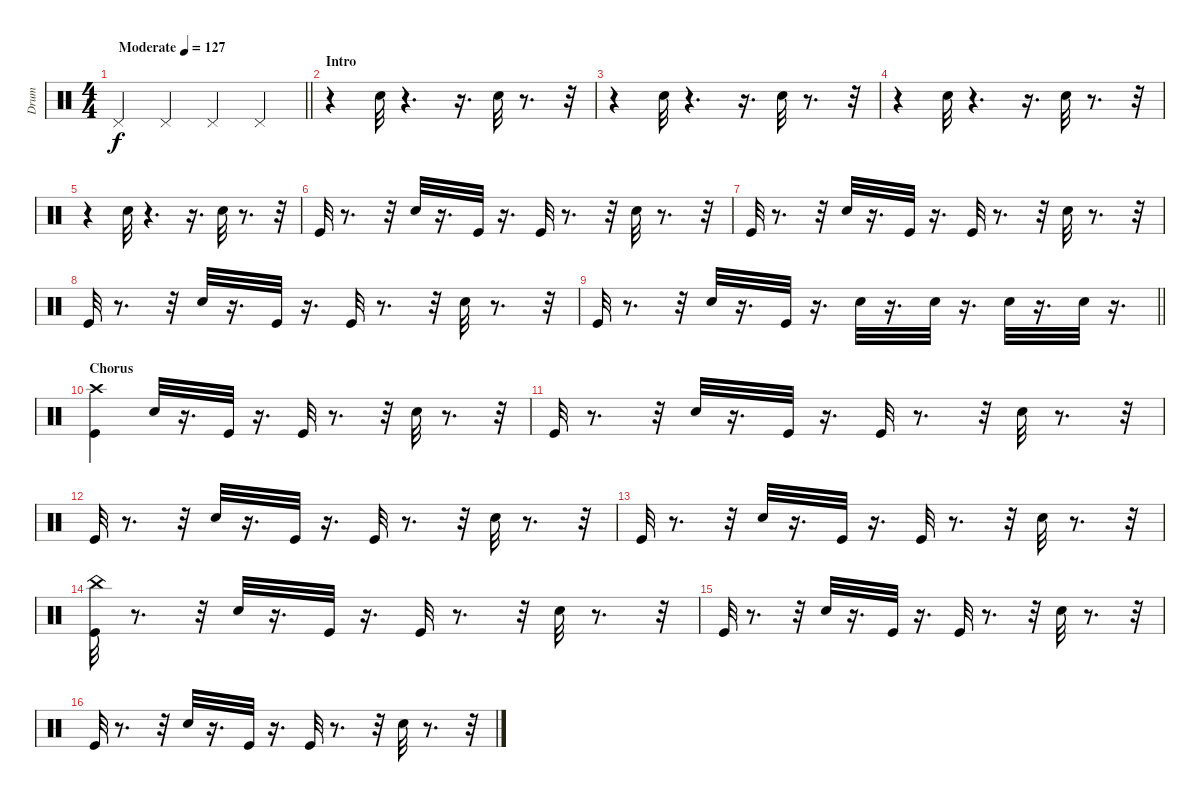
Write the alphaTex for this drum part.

\track ("Drum" "Drum") {instrument percussion}
\staff {score}
\articulation defaults
\ts (4 4)
\tempo (127 "Moderate")
\clef neutral
\barLineRight lightlight
\ks c "Pedal Hi-Hat (hit)".4{dy f} "Pedal Hi-Hat (hit)".4 "Pedal Hi-Hat (hit)".4 "Pedal Hi-Hat (hit)".4
|
\section ("" "Intro")
r.4 "Snare (hit) 2".32 r.4{d} r.16{d} "Snare (hit) 2".32 r.8{d} r.32 |
r.4 "Snare (hit) 2".32 r.4{d} r.16{d} "Snare (hit) 2".32 r.8{d} r.32 |
r.4 "Snare (hit) 2".32 r.4{d} r.16{d} "Snare (hit) 2".32 r.8{d} r.32 |
r.4 "Snare (hit) 2".32 r.4{d} r.16{d} "Snare (hit) 2".32 r.8{d} r.32 |
"Kick (hit)".32 r.8{d} r.32 "Snare (hit) 2".32 r.16{d} "Kick (hit)".32 r.16{d} "Kick (hit)".32 r.8{d} r.32 "Snare (hit) 2".32 r.8{d} r.32 |
"Kick (hit)".32 r.8{d} r.32 "Snare (hit) 2".32 r.16{d} "Kick (hit)".32 r.16{d} "Kick (hit)".32 r.8{d} r.32 "Snare (hit) 2".32 r.8{d} r.32 |
"Kick (hit)".32 r.8{d} r.32 "Snare (hit) 2".32 r.16{d} "Kick (hit)".32 r.16{d} "Kick (hit)".32 r.8{d} r.32 "Snare (hit) 2".32 r.8{d} r.32 |
\barLineRight lightlight "Kick (hit)".32
r.8{d} r.32 "Snare (hit) 2".32 r.16{d} "Kick (hit)".32 r.16{d} "Snare (hit) 2".32 r.16{d} "Snare (hit) 2".32 r.16{d} "Snare (hit) 2".32 r.16{d} "Snare (hit) 2".32 r.16{d} |
\section ("" "Chorus")
("Kick (hit)" "Crash high (hit)").4 "Snare (hit) 2".32 r.16{d} "Kick (hit)".32 r.16{d} "Kick (hit)".32 r.8{d} r.32 "Snare (hit) 2".32 r.8{d} r.32 |
"Kick (hit)".32 r.8{d} r.32 "Snare (hit) 2".32 r.16{d} "Kick (hit)".32 r.16{d} "Kick (hit)".32 r.8{d} r.32 "Snare (hit) 2".32 r.8{d} r.32 |
"Kick (hit)".32 r.8{d} r.32 "Snare (hit) 2".32 r.16{d} "Kick (hit)".32 r.16{d} "Kick (hit)".32 r.8{d} r.32 "Snare (hit) 2".32 r.8{d} r.32 |
"Kick (hit)".32 r.8{d} r.32 "Snare (hit) 2".32 r.16{d} "Kick (hit)".32 r.16{d} "Kick (hit)".32 r.8{d} r.32 "Snare (hit) 2".32 r.8{d} r.32 |
("Kick (hit)" "China (hit)").32 r.8{d} r.32 "Snare (hit) 2".32 r.16{d} "Kick (hit)".32 r.16{d} "Kick (hit)".32 r.8{d} r.32 "Snare (hit) 2".32 r.8{d} r.32 |
"Kick (hit)".32 r.8{d} r.32 "Snare (hit) 2".32 r.16{d} "Kick (hit)".32 r.16{d} "Kick (hit)".32 r.8{d} r.32 "Snare (hit) 2".32 r.8{d} r.32 |
"Kick (hit)".32 r.8{d} r.32 "Snare (hit) 2".32 r.16{d} "Kick (hit)".32 r.16{d} "Kick (hit)".32 r.8{d} r.32 "Snare (hit) 2".32 r.8{d} r.32
